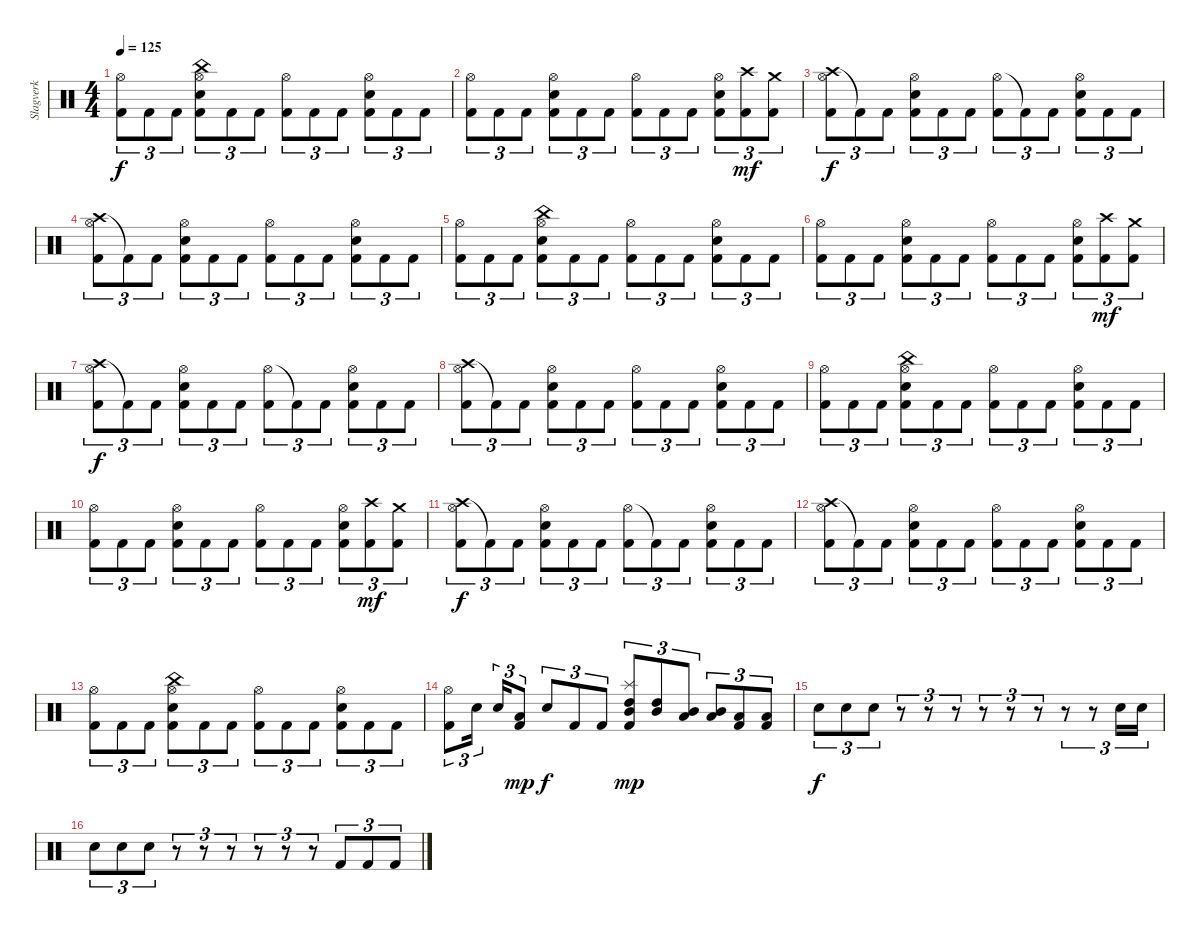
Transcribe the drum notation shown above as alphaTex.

\track ("Slagverk" "Slagverk") {instrument percussion}
\staff {score}
\articulation defaults
\ts (4 4)
\tempo 125
\clef neutral
\ks c
("Hi-Hat (open)" "Kick (hit) 2").8{tu (3 2) dy f} "Kick (hit) 2".8{tu (3 2)} "Kick (hit) 2".8{tu (3 2)} ("China (hit)" "Hi-Hat (open)" "Electric Snare (hit)" "Kick (hit) 2").8{tu (3 2)} "Kick (hit) 2".8{tu (3 2)} "Kick (hit) 2".8{tu (3 2)} ("Hi-Hat (open)" "Kick (hit) 2").8{tu (3 2)} "Kick (hit) 2".8{tu (3 2)} "Kick (hit) 2".8{tu (3 2)} ("Hi-Hat (open)" "Electric Snare (hit)" "Kick (hit) 2").8{tu (3 2)} "Kick (hit) 2".8{tu (3 2)} "Kick (hit) 2".8{tu (3 2)} |
("Hi-Hat (open)" "Kick (hit) 2").8{tu (3 2)} "Kick (hit) 2".8{tu (3 2)} "Kick (hit) 2".8{tu (3 2)} ("Hi-Hat (open)" "Electric Snare (hit)" "Kick (hit) 2").8{tu (3 2)} "Kick (hit) 2".8{tu (3 2)} "Kick (hit) 2".8{tu (3 2)} ("Hi-Hat (open)" "Kick (hit) 2").8{tu (3 2)} "Kick (hit) 2".8{tu (3 2)} "Kick (hit) 2".8{tu (3 2)} ("Hi-Hat (open)" "Electric Snare (hit)" "Kick (hit) 2").8{tu (3 2)} ("Crash high (hit)" "Kick (hit) 2").8{tu (3 2) dy mf} ("Crash medium (hit)" "Kick (hit) 2").8{tu (3 2)} |
("Crash high (hit)" "Hi-Hat (open)" "Kick (hit) 2").8{tu (3 2) dy f} "Kick (hit) 2"{t}.8{tu (3 2)} "Kick (hit) 2".8{tu (3 2)} ("Hi-Hat (open)" "Electric Snare (hit)" "Kick (hit) 2").8{tu (3 2)} "Kick (hit) 2".8{tu (3 2)} "Kick (hit) 2".8{tu (3 2)} ("Hi-Hat (open)" "Kick (hit) 2").8{tu (3 2)} "Kick (hit) 2"{t}.8{tu (3 2)} "Kick (hit) 2".8{tu (3 2)} ("Hi-Hat (open)" "Electric Snare (hit)" "Kick (hit) 2").8{tu (3 2)} "Kick (hit) 2".8{tu (3 2)} "Kick (hit) 2".8{tu (3 2)} |
("Crash high (hit)" "Hi-Hat (open)" "Kick (hit) 2").8{tu (3 2)} "Kick (hit) 2"{t}.8{tu (3 2)} "Kick (hit) 2".8{tu (3 2)} ("Hi-Hat (open)" "Electric Snare (hit)" "Kick (hit) 2").8{tu (3 2)} "Kick (hit) 2".8{tu (3 2)} "Kick (hit) 2".8{tu (3 2)} ("Hi-Hat (open)" "Kick (hit) 2").8{tu (3 2)} "Kick (hit) 2".8{tu (3 2)} "Kick (hit) 2".8{tu (3 2)} ("Hi-Hat (open)" "Electric Snare (hit)" "Kick (hit) 2").8{tu (3 2)} "Kick (hit) 2".8{tu (3 2)} "Kick (hit) 2".8{tu (3 2)} |
("Hi-Hat (open)" "Kick (hit) 2").8{tu (3 2)} "Kick (hit) 2".8{tu (3 2)} "Kick (hit) 2".8{tu (3 2)} ("China (hit)" "Hi-Hat (open)" "Electric Snare (hit)" "Kick (hit) 2").8{tu (3 2)} "Kick (hit) 2".8{tu (3 2)} "Kick (hit) 2".8{tu (3 2)} ("Hi-Hat (open)" "Kick (hit) 2").8{tu (3 2)} "Kick (hit) 2".8{tu (3 2)} "Kick (hit) 2".8{tu (3 2)} ("Hi-Hat (open)" "Electric Snare (hit)" "Kick (hit) 2").8{tu (3 2)} "Kick (hit) 2".8{tu (3 2)} "Kick (hit) 2".8{tu (3 2)} |
("Hi-Hat (open)" "Kick (hit) 2").8{tu (3 2)} "Kick (hit) 2".8{tu (3 2)} "Kick (hit) 2".8{tu (3 2)} ("Hi-Hat (open)" "Electric Snare (hit)" "Kick (hit) 2").8{tu (3 2)} "Kick (hit) 2".8{tu (3 2)} "Kick (hit) 2".8{tu (3 2)} ("Hi-Hat (open)" "Kick (hit) 2").8{tu (3 2)} "Kick (hit) 2".8{tu (3 2)} "Kick (hit) 2".8{tu (3 2)} ("Hi-Hat (open)" "Electric Snare (hit)" "Kick (hit) 2").8{tu (3 2)} ("Crash high (hit)" "Kick (hit) 2").8{tu (3 2) dy mf} ("Crash medium (hit)" "Kick (hit) 2").8{tu (3 2)} |
("Crash high (hit)" "Hi-Hat (open)" "Kick (hit) 2").8{tu (3 2) dy f} "Kick (hit) 2"{t}.8{tu (3 2)} "Kick (hit) 2".8{tu (3 2)} ("Hi-Hat (open)" "Electric Snare (hit)" "Kick (hit) 2").8{tu (3 2)} "Kick (hit) 2".8{tu (3 2)} "Kick (hit) 2".8{tu (3 2)} ("Hi-Hat (open)" "Kick (hit) 2").8{tu (3 2)} "Kick (hit) 2"{t}.8{tu (3 2)} "Kick (hit) 2".8{tu (3 2)} ("Hi-Hat (open)" "Electric Snare (hit)" "Kick (hit) 2").8{tu (3 2)} "Kick (hit) 2".8{tu (3 2)} "Kick (hit) 2".8{tu (3 2)} |
("Crash high (hit)" "Hi-Hat (open)" "Kick (hit) 2").8{tu (3 2)} "Kick (hit) 2"{t}.8{tu (3 2)} "Kick (hit) 2".8{tu (3 2)} ("Hi-Hat (open)" "Electric Snare (hit)" "Kick (hit) 2").8{tu (3 2)} "Kick (hit) 2".8{tu (3 2)} "Kick (hit) 2".8{tu (3 2)} ("Hi-Hat (open)" "Kick (hit) 2").8{tu (3 2)} "Kick (hit) 2".8{tu (3 2)} "Kick (hit) 2".8{tu (3 2)} ("Hi-Hat (open)" "Electric Snare (hit)" "Kick (hit) 2").8{tu (3 2)} "Kick (hit) 2".8{tu (3 2)} "Kick (hit) 2".8{tu (3 2)} |
("Hi-Hat (open)" "Kick (hit) 2").8{tu (3 2)} "Kick (hit) 2".8{tu (3 2)} "Kick (hit) 2".8{tu (3 2)} ("China (hit)" "Hi-Hat (open)" "Electric Snare (hit)" "Kick (hit) 2").8{tu (3 2)} "Kick (hit) 2".8{tu (3 2)} "Kick (hit) 2".8{tu (3 2)} ("Hi-Hat (open)" "Kick (hit) 2").8{tu (3 2)} "Kick (hit) 2".8{tu (3 2)} "Kick (hit) 2".8{tu (3 2)} ("Hi-Hat (open)" "Electric Snare (hit)" "Kick (hit) 2").8{tu (3 2)} "Kick (hit) 2".8{tu (3 2)} "Kick (hit) 2".8{tu (3 2)} |
("Hi-Hat (open)" "Kick (hit) 2").8{tu (3 2)} "Kick (hit) 2".8{tu (3 2)} "Kick (hit) 2".8{tu (3 2)} ("Hi-Hat (open)" "Electric Snare (hit)" "Kick (hit) 2").8{tu (3 2)} "Kick (hit) 2".8{tu (3 2)} "Kick (hit) 2".8{tu (3 2)} ("Hi-Hat (open)" "Kick (hit) 2").8{tu (3 2)} "Kick (hit) 2".8{tu (3 2)} "Kick (hit) 2".8{tu (3 2)} ("Hi-Hat (open)" "Electric Snare (hit)" "Kick (hit) 2").8{tu (3 2)} ("Crash high (hit)" "Kick (hit) 2").8{tu (3 2) dy mf} ("Crash medium (hit)" "Kick (hit) 2").8{tu (3 2)} |
("Crash high (hit)" "Hi-Hat (open)" "Kick (hit) 2").8{tu (3 2) dy f} "Kick (hit) 2"{t}.8{tu (3 2)} "Kick (hit) 2".8{tu (3 2)} ("Hi-Hat (open)" "Electric Snare (hit)" "Kick (hit) 2").8{tu (3 2)} "Kick (hit) 2".8{tu (3 2)} "Kick (hit) 2".8{tu (3 2)} ("Hi-Hat (open)" "Kick (hit) 2").8{tu (3 2)} "Kick (hit) 2"{t}.8{tu (3 2)} "Kick (hit) 2".8{tu (3 2)} ("Hi-Hat (open)" "Electric Snare (hit)" "Kick (hit) 2").8{tu (3 2)} "Kick (hit) 2".8{tu (3 2)} "Kick (hit) 2".8{tu (3 2)} |
("Crash high (hit)" "Hi-Hat (open)" "Kick (hit) 2").8{tu (3 2)} "Kick (hit) 2"{t}.8{tu (3 2)} "Kick (hit) 2".8{tu (3 2)} ("Hi-Hat (open)" "Electric Snare (hit)" "Kick (hit) 2").8{tu (3 2)} "Kick (hit) 2".8{tu (3 2)} "Kick (hit) 2".8{tu (3 2)} ("Hi-Hat (open)" "Kick (hit) 2").8{tu (3 2)} "Kick (hit) 2".8{tu (3 2)} "Kick (hit) 2".8{tu (3 2)} ("Hi-Hat (open)" "Electric Snare (hit)" "Kick (hit) 2").8{tu (3 2)} "Kick (hit) 2".8{tu (3 2)} "Kick (hit) 2".8{tu (3 2)} |
("Hi-Hat (open)" "Kick (hit) 2").8{tu (3 2)} "Kick (hit) 2".8{tu (3 2)} "Kick (hit) 2".8{tu (3 2)} ("China (hit)" "Hi-Hat (open)" "Electric Snare (hit)" "Kick (hit) 2").8{tu (3 2)} "Kick (hit) 2".8{tu (3 2)} "Kick (hit) 2".8{tu (3 2)} ("Hi-Hat (open)" "Kick (hit) 2").8{tu (3 2)} "Kick (hit) 2".8{tu (3 2)} "Kick (hit) 2".8{tu (3 2)} ("Hi-Hat (open)" "Electric Snare (hit)" "Kick (hit) 2").8{tu (3 2)} "Kick (hit) 2".8{tu (3 2)} "Kick (hit) 2".8{tu (3 2)} |
("Hi-Hat (open)" "Kick (hit) 2").8{tu (3 2)} "Electric Snare (hit)".16{tu (3 2) beam splitsecondary} "Electric Snare (hit)".16{tu (3 2)} ("Low Tom (hit)" "Kick (hit) 2").8{tu (3 2) dy mp} "Electric Snare (hit)".8{tu (3 2) dy f} "Kick (hit) 2".8{tu (3 2)} "Kick (hit) 2".8{tu (3 2)} ("Splash (hit)" "High Tom (hit)" "Mid Tom (hit)" "Kick (hit) 2").8{tu (3 2) dy mp} ("High Tom (hit)" "Mid Tom (hit)").8{tu (3 2)} ("Mid Tom (hit)" "Low Tom (hit)").8{tu (3 2)} ("Mid Tom (hit)" "Low Tom (hit)").8{tu (3 2)} ("Low Tom (hit)" "Kick (hit) 2").8{tu (3 2)} ("Low Tom (hit)" "Kick (hit) 2").8{tu (3 2)} |
"Electric Snare (hit)".8{tu (3 2) dy f} "Electric Snare (hit)".8{tu (3 2)} "Electric Snare (hit)".8{tu (3 2)} r.8{tu (3 2)} r.8{tu (3 2)} r.8{tu (3 2)} r.8{tu (3 2)} r.8{tu (3 2)} r.8{tu (3 2)} r.8{tu (3 2)} r.8{tu (3 2)} "Electric Snare (hit)".16{tu (3 2)} "Electric Snare (hit)".16{tu (3 2)} |
"Electric Snare (hit)".8{tu (3 2)} "Electric Snare (hit)".8{tu (3 2)} "Electric Snare (hit)".8{tu (3 2)} r.8{tu (3 2)} r.8{tu (3 2)} r.8{tu (3 2)} r.8{tu (3 2)} r.8{tu (3 2)} r.8{tu (3 2)} "Kick (hit) 2".8{tu (3 2)} "Kick (hit) 2".8{tu (3 2)} "Kick (hit) 2".8{tu (3 2)}
